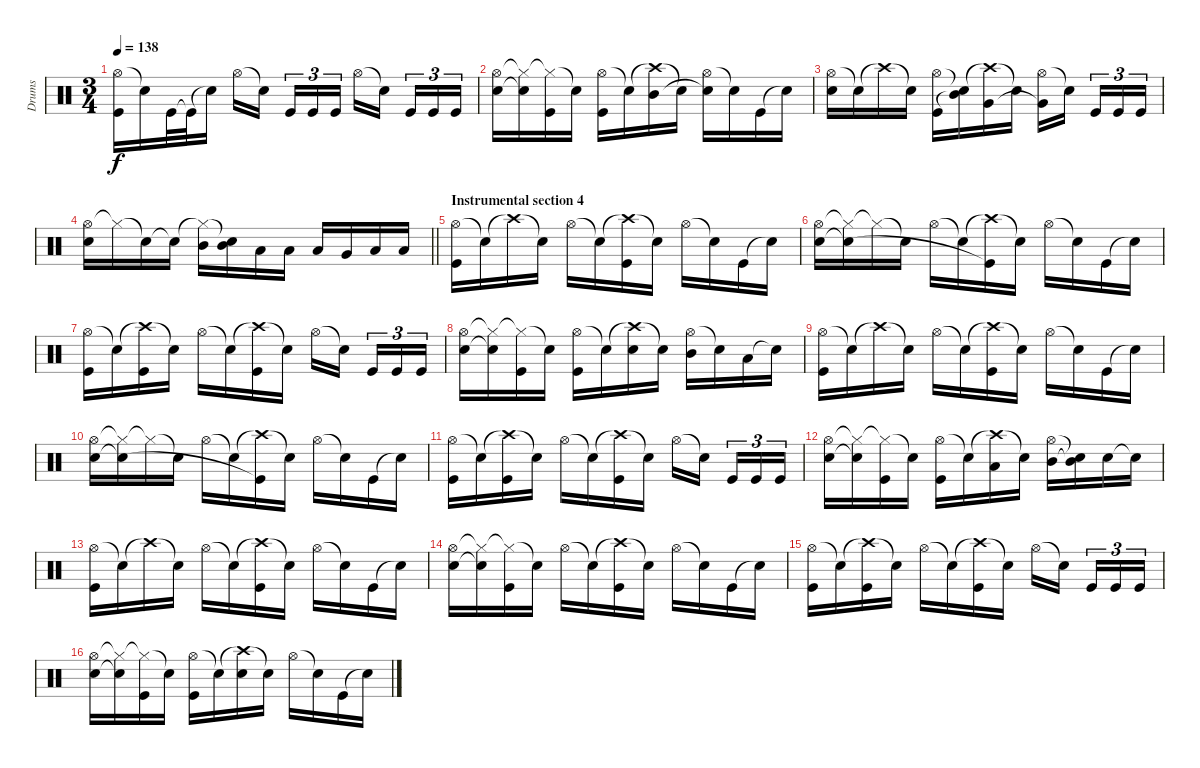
\track ("Drums" "Drums") {instrument percussion}
\staff {score}
\articulation defaults
\ts (3 4)
\tempo 138
\clef neutral
\ks c
("Hi-Hat (open)" "Kick (hit)").16{dy f} "Snare (hit)"{t}.16 "Kick (hit)".32 "Kick (hit)"{t}.32 "Snare (hit)"{t}.16 "Hi-Hat (open)".16 "Snare (hit)"{t}.16 "Kick (hit)".16{tu (3 2)} "Kick (hit)".16{tu (3 2)} "Kick (hit)".16{tu (3 2)} "Hi-Hat (open)".16 "Snare (hit)"{t}.16 "Kick (hit)".16{tu (3 2)} "Kick (hit)".16{tu (3 2)} "Kick (hit)".16{tu (3 2)} |
("Hi-Hat (open)" "Electric Snare (hit)").16 ("Hi-Hat (closed)"{t} "Snare (hit)"{t}).16 ("Hi-Hat (closed)"{t} "Kick (hit)").16 "Snare (hit)"{t}.16 ("Hi-Hat (open)" "Kick (hit)").16 "Snare (hit)"{t}.16 ("Crash high (hit)"{t} "Mid Tom (hit)").16 "Snare (hit)"{t}.16 ("Hi-Hat (open)" "Snare (hit)"{t}).16 "Snare (hit)"{t}.16 "Kick (hit)".16 "Snare (hit)"{t}.16 |
("Hi-Hat (open)" "Electric Snare (hit)").16 "Snare (hit)"{t}.16 "Crash high (hit)"{t}.16 "Snare (hit)"{t}.16 ("Hi-Hat (open)" "Kick (hit)").16 ("Snare (hit)"{t} "Mid Tom (hit)"{t}).16 ("Crash high (hit)"{t} "Very Low Tom (hit)").16 "Snare (hit)"{t}.16 ("Hi-Hat (open)" "Very Low Tom (hit)"{t}).16 "Snare (hit)"{t}.16 "Kick (hit)".16{tu (3 2)} "Kick (hit)".16{tu (3 2)} "Kick (hit)".16{tu (3 2)} |
\barLineRight lightlight
("Hi-Hat (open)" "Electric Snare (hit)").16 "Hi-Hat (closed)"{t}.16 "Snare (hit)"{t}.16 "Snare (hit)"{t}.16 ("Hi-Hat (closed)"{t} "Mid Tom (hit)").16 ("Snare (hit)"{t} "Mid Tom (hit)").16 "Low Tom (hit)".16 "Low Tom (hit)".16 "Low Tom (hit)".16 "Very Low Tom (hit)".16 "Low Floor Tom (hit)".16 "Low Floor Tom (hit)".16 |
\section ("" "Instrumental section 4")
("Hi-Hat (open)" "Kick (hit)").16 "Snare (hit)"{t}.16 "Crash high (hit)"{t}.16 "Snare (hit)"{t}.16 "Hi-Hat (open)".16 "Snare (hit)"{t}.16 ("Crash high (hit)"{t} "Kick (hit)").16 "Snare (hit)"{t}.16 "Hi-Hat (open)".16 "Snare (hit)"{t}.16 "Kick (hit)".16 "Snare (hit)"{t}.16 |
("Hi-Hat (open)" "Electric Snare (hit)").16 ("Hi-Hat (closed)"{t} "Snare (hit)"{t}).16 "Hi-Hat (closed)"{t}.16 "Snare (hit)"{t}.16 "Hi-Hat (open)".16 "Snare (hit)"{t}.16 ("Crash high (hit)"{t} "Kick (hit)"{t}).16 "Snare (hit)"{t}.16 "Hi-Hat (open)".16 "Snare (hit)"{t}.16 "Kick (hit)".16 "Snare (hit)"{t}.16 |
("Hi-Hat (open)" "Kick (hit)").16 "Snare (hit)"{t}.16 ("Crash high (hit)"{t} "Kick (hit)").16 "Snare (hit)"{t}.16 "Hi-Hat (open)".16 "Snare (hit)"{t}.16 ("Crash high (hit)"{t} "Kick (hit)").16 "Snare (hit)"{t}.16 "Hi-Hat (open)".16 "Snare (hit)"{t}.16 "Kick (hit)".16{tu (3 2)} "Kick (hit)".16{tu (3 2)} "Kick (hit)".16{tu (3 2)} |
("Hi-Hat (open)" "Electric Snare (hit)").16 ("Hi-Hat (closed)"{t} "Snare (hit)"{t}).16 ("Hi-Hat (closed)"{t} "Kick (hit)").16 "Snare (hit)"{t}.16 ("Hi-Hat (open)" "Kick (hit)").16 "Snare (hit)"{t}.16 ("Crash high (hit)"{t} "Electric Snare (hit)").16 "Snare (hit)"{t}.16 ("Hi-Hat (open)" "Mid Tom (hit)").16 "Snare (hit)"{t}.16 "Low Tom (hit)".16 "Snare (hit)"{t}.16 |
("Hi-Hat (open)" "Kick (hit)").16 "Snare (hit)"{t}.16 "Crash high (hit)"{t}.16 "Snare (hit)"{t}.16 "Hi-Hat (open)".16 "Snare (hit)"{t}.16 ("Crash high (hit)"{t} "Kick (hit)").16 "Snare (hit)"{t}.16 "Hi-Hat (open)".16 "Snare (hit)"{t}.16 "Kick (hit)".16 "Snare (hit)"{t}.16 |
("Hi-Hat (open)" "Electric Snare (hit)").16 ("Hi-Hat (closed)"{t} "Snare (hit)"{t}).16 "Hi-Hat (closed)"{t}.16 "Snare (hit)"{t}.16 "Hi-Hat (open)".16 "Snare (hit)"{t}.16 ("Crash high (hit)"{t} "Kick (hit)"{t}).16 "Snare (hit)"{t}.16 "Hi-Hat (open)".16 "Snare (hit)"{t}.16 "Kick (hit)".16 "Snare (hit)"{t}.16 |
("Hi-Hat (open)" "Kick (hit)").16 "Snare (hit)"{t}.16 ("Crash high (hit)"{t} "Kick (hit)").16 "Snare (hit)"{t}.16 "Hi-Hat (open)".16 "Snare (hit)"{t}.16 ("Crash high (hit)"{t} "Kick (hit)").16 "Snare (hit)"{t}.16 "Hi-Hat (open)".16 "Snare (hit)"{t}.16 "Kick (hit)".16{tu (3 2)} "Kick (hit)".16{tu (3 2)} "Kick (hit)".16{tu (3 2)} |
("Hi-Hat (open)" "Electric Snare (hit)").16 ("Hi-Hat (closed)"{t} "Snare (hit)"{t}).16 ("Hi-Hat (closed)"{t} "Kick (hit)").16 "Snare (hit)"{t}.16 ("Hi-Hat (open)" "Kick (hit)").16 "Snare (hit)"{t}.16 ("Crash high (hit)"{t} "Low Tom (hit)").16 "Snare (hit)"{t}.16 ("Hi-Hat (open)" "Mid Tom (hit)").16 ("Snare (hit)"{t} "Mid Tom (hit)"{t}).16 "Electric Snare (hit)".16 "Snare (hit)"{t}.16 |
("Hi-Hat (open)" "Kick (hit)").16 "Snare (hit)"{t}.16 "Crash high (hit)"{t}.16 "Snare (hit)"{t}.16 "Hi-Hat (open)".16 "Snare (hit)"{t}.16 ("Crash high (hit)"{t} "Kick (hit)").16 "Snare (hit)"{t}.16 "Hi-Hat (open)".16 "Snare (hit)"{t}.16 "Kick (hit)".16 "Snare (hit)"{t}.16 |
("Hi-Hat (open)" "Electric Snare (hit)").16 ("Hi-Hat (closed)"{t} "Snare (hit)"{t}).16 ("Hi-Hat (closed)"{t} "Kick (hit)").16 "Snare (hit)"{t}.16 "Hi-Hat (open)".16 "Snare (hit)"{t}.16 ("Crash high (hit)"{t} "Kick (hit)").16 "Snare (hit)"{t}.16 "Hi-Hat (open)".16 "Snare (hit)"{t}.16 "Kick (hit)".16 "Snare (hit)"{t}.16 |
("Hi-Hat (open)" "Kick (hit)").16 "Snare (hit)"{t}.16 ("Crash high (hit)"{t} "Kick (hit)").16 "Snare (hit)"{t}.16 "Hi-Hat (open)".16 "Snare (hit)"{t}.16 ("Crash high (hit)"{t} "Kick (hit)").16 "Snare (hit)"{t}.16 "Hi-Hat (open)".16 "Snare (hit)"{t}.16 "Kick (hit)".16{tu (3 2)} "Kick (hit)".16{tu (3 2)} "Kick (hit)".16{tu (3 2)} |
("Hi-Hat (open)" "Electric Snare (hit)").16 ("Hi-Hat (closed)"{t} "Snare (hit)"{t}).16 ("Hi-Hat (closed)"{t} "Kick (hit)").16 "Snare (hit)"{t}.16 ("Hi-Hat (open)" "Kick (hit)").16 "Snare (hit)"{t}.16 ("Crash high (hit)"{t} "Electric Snare (hit)").16 "Snare (hit)"{t}.16 "Hi-Hat (open)".16 "Snare (hit)"{t}.16 "Kick (hit)".16 "Snare (hit)"{t}.16
